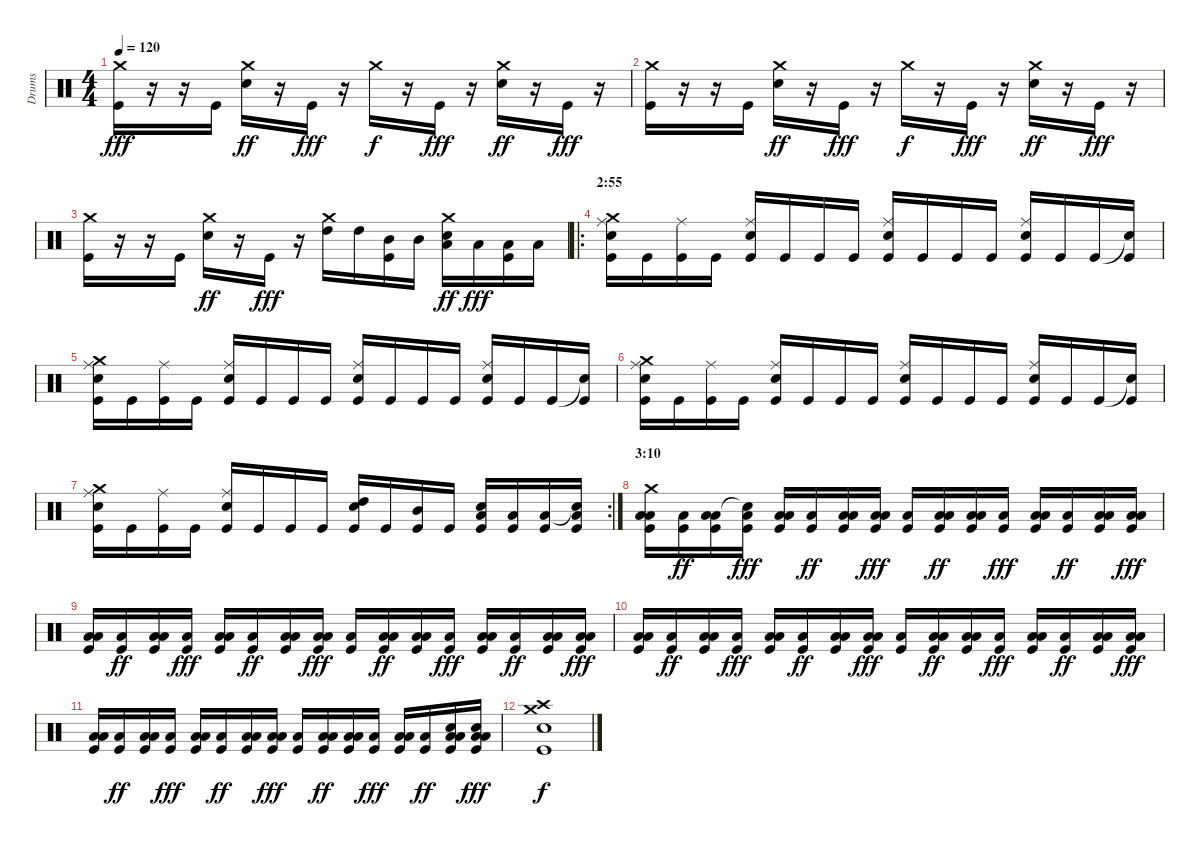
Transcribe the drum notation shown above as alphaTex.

\track ("Drums" "Drums") {instrument percussion}
\staff {score}
\articulation defaults
\ts (4 4)
\tempo 120
\clef neutral
\ks c
("Crash medium (hit)" "Kick (hit)").16{dy fff} r.16 r.16 "Kick (hit)".16 ("Crash medium (hit)" "Electric Snare (hit)").16{dy ff} r.16 "Kick (hit)".16{dy fff} r.16 "Crash medium (hit)".16{dy f} r.16 "Kick (hit)".16{dy fff} r.16 ("Crash medium (hit)" "Electric Snare (hit)").16{dy ff} r.16 "Kick (hit)".16{dy fff} r.16 |
("Crash medium (hit)" "Kick (hit)").16 r.16 r.16 "Kick (hit)".16 ("Crash medium (hit)" "Electric Snare (hit)").16{dy ff} r.16 "Kick (hit)".16{dy fff} r.16 "Crash medium (hit)".16{dy f} r.16 "Kick (hit)".16{dy fff} r.16 ("Crash medium (hit)" "Electric Snare (hit)").16{dy ff} r.16 "Kick (hit)".16{dy fff} r.16 |
("Crash medium (hit)" "Kick (hit)").16 r.16 r.16 "Kick (hit)".16 ("Crash medium (hit)" "Electric Snare (hit)").16{dy ff} r.16 "Kick (hit)".16{dy fff} r.16 ("Crash medium (hit)" "High Tom (hit)").16 "High Tom (hit)".16 ("Mid Tom (hit)" "Kick (hit)").16 "Mid Tom (hit)".16 ("Crash medium (hit)" "Low Tom (hit)" "Electric Snare (hit)").16{dy ff} "Low Tom (hit)".16{dy fff} ("Low Floor Tom (hit)" "Kick (hit)").16 "Low Floor Tom (hit)".16 |
\ro
\section ("" "2:55")
("Ride (middle)" "Crash medium (hit)" "Snare (hit) 2" "Kick (hit)").16 "Kick (hit)".16 ("Ride (middle)" "Kick (hit)").16 "Kick (hit)".16 ("Ride (middle)" "Snare (hit) 2" "Kick (hit)").16 "Kick (hit)".16 "Kick (hit)".16 "Kick (hit)".16 ("Ride (middle)" "Snare (hit) 2" "Kick (hit)").16 "Kick (hit)".16 "Kick (hit)".16 "Kick (hit)".16 ("Ride (middle)" "Snare (hit) 2" "Kick (hit)").16 "Kick (hit)".16 "Kick (hit)".16 ("Snare (hit)"{t} "Kick (hit)").16 |
("Ride (middle)" "Crash medium (hit)" "Snare (hit) 2" "Kick (hit)").16 "Kick (hit)".16 ("Ride (middle)" "Kick (hit)").16 "Kick (hit)".16 ("Ride (middle)" "Snare (hit) 2" "Kick (hit)").16 "Kick (hit)".16 "Kick (hit)".16 "Kick (hit)".16 ("Ride (middle)" "Snare (hit) 2" "Kick (hit)").16 "Kick (hit)".16 "Kick (hit)".16 "Kick (hit)".16 ("Ride (middle)" "Snare (hit) 2" "Kick (hit)").16 "Kick (hit)".16 "Kick (hit)".16 ("Snare (hit)"{t} "Kick (hit)").16 |
("Ride (middle)" "Crash medium (hit)" "Snare (hit) 2" "Kick (hit)").16 "Kick (hit)".16 ("Ride (middle)" "Kick (hit)").16 "Kick (hit)".16 ("Ride (middle)" "Snare (hit) 2" "Kick (hit)").16 "Kick (hit)".16 "Kick (hit)".16 "Kick (hit)".16 ("Ride (middle)" "Snare (hit) 2" "Kick (hit)").16 "Kick (hit)".16 "Kick (hit)".16 "Kick (hit)".16 ("Ride (middle)" "Snare (hit) 2" "Kick (hit)").16 "Kick (hit)".16 "Kick (hit)".16 ("Snare (hit)"{t} "Kick (hit)").16 |
\rc 2
("Ride (middle)" "Crash medium (hit)" "Snare (hit) 2" "Kick (hit)").16 "Kick (hit)".16 ("Ride (middle)" "Kick (hit)").16 "Kick (hit)".16 ("Ride (middle)" "Snare (hit) 2" "Kick (hit)").16 "Kick (hit)".16 "Kick (hit)".16 "Kick (hit)".16 ("High Tom (hit)" "Snare (hit) 2" "Kick (hit)").16 "Kick (hit)".16 ("Mid Tom (hit)" "Kick (hit)").16 "Kick (hit)".16 ("Low Tom (hit)" "Snare (hit) 2" "Kick (hit)").16 ("Low Tom (hit)" "Kick (hit)").16 ("Low Floor Tom (hit)" "Kick (hit)").16 ("Snare (hit)"{t} "Low Floor Tom (hit)" "Kick (hit)").16 |
\section ("" "3:10")
("Crash medium (hit)" "Low Floor Tom (hit)" "Low Tom (hit)" "Kick (hit)").16 ("Low Floor Tom (hit)" "Kick (hit)").16{dy ff} ("Low Floor Tom (hit)" "Low Floor Tom (hit)" "Kick (hit)").16 ("Snare (hit)"{t} "Low Floor Tom (hit)" "Kick (hit)").16{dy fff} ("Low Floor Tom (hit)" "Low Floor Tom (hit)" "Kick (hit)").16 ("Low Floor Tom (hit)" "Kick (hit)").16{dy ff} ("Low Floor Tom (hit)" "Low Floor Tom (hit)" "Kick (hit)").16 ("Low Floor Tom (hit)" "Low Floor Tom (hit)" "Kick (hit)").16{dy fff} ("Low Floor Tom (hit)" "Kick (hit)").16 ("Low Floor Tom (hit)" "Low Floor Tom (hit)" "Kick (hit)").16{dy ff} ("Low Floor Tom (hit)" "Low Floor Tom (hit)" "Kick (hit)").16 ("Low Floor Tom (hit)" "Kick (hit)").16{dy fff} ("Low Floor Tom (hit)" "Low Floor Tom (hit)" "Kick (hit)").16 ("Low Floor Tom (hit)" "Kick (hit)").16{dy ff} ("Low Floor Tom (hit)" "Low Floor Tom (hit)" "Kick (hit)").16 ("Low Floor Tom (hit)" "Low Floor Tom (hit)" "Kick (hit)").16{dy fff} |
("Low Floor Tom (hit)" "Low Tom (hit)" "Kick (hit)").16 ("Low Floor Tom (hit)" "Kick (hit)").16{dy ff} ("Low Floor Tom (hit)" "Low Floor Tom (hit)" "Kick (hit)").16 ("Low Floor Tom (hit)" "Kick (hit)").16{dy fff} ("Low Floor Tom (hit)" "Low Floor Tom (hit)" "Kick (hit)").16 ("Low Floor Tom (hit)" "Kick (hit)").16{dy ff} ("Low Floor Tom (hit)" "Low Floor Tom (hit)" "Kick (hit)").16 ("Low Floor Tom (hit)" "Low Floor Tom (hit)" "Kick (hit)").16{dy fff} ("Low Floor Tom (hit)" "Kick (hit)").16 ("Low Floor Tom (hit)" "Low Floor Tom (hit)" "Kick (hit)").16{dy ff} ("Low Floor Tom (hit)" "Low Floor Tom (hit)" "Kick (hit)").16 ("Low Floor Tom (hit)" "Kick (hit)").16{dy fff} ("Low Floor Tom (hit)" "Low Floor Tom (hit)" "Kick (hit)").16 ("Low Floor Tom (hit)" "Kick (hit)").16{dy ff} ("Low Floor Tom (hit)" "Low Floor Tom (hit)" "Kick (hit)").16 ("Low Floor Tom (hit)" "Low Floor Tom (hit)" "Kick (hit)").16{dy fff} |
("Low Floor Tom (hit)" "Low Tom (hit)" "Kick (hit)").16 ("Low Floor Tom (hit)" "Kick (hit)").16{dy ff} ("Low Floor Tom (hit)" "Low Floor Tom (hit)" "Kick (hit)").16 ("Low Floor Tom (hit)" "Kick (hit)").16{dy fff} ("Low Floor Tom (hit)" "Low Floor Tom (hit)" "Kick (hit)").16 ("Low Floor Tom (hit)" "Kick (hit)").16{dy ff} ("Low Floor Tom (hit)" "Low Floor Tom (hit)" "Kick (hit)").16 ("Low Floor Tom (hit)" "Low Floor Tom (hit)" "Kick (hit)").16{dy fff} ("Low Floor Tom (hit)" "Kick (hit)").16 ("Low Floor Tom (hit)" "Low Floor Tom (hit)" "Kick (hit)").16{dy ff} ("Low Floor Tom (hit)" "Low Floor Tom (hit)" "Kick (hit)").16 ("Low Floor Tom (hit)" "Kick (hit)").16{dy fff} ("Low Floor Tom (hit)" "Low Floor Tom (hit)" "Kick (hit)").16 ("Low Floor Tom (hit)" "Kick (hit)").16{dy ff} ("Low Floor Tom (hit)" "Low Floor Tom (hit)" "Kick (hit)").16 ("Low Floor Tom (hit)" "Low Floor Tom (hit)" "Kick (hit)").16{dy fff} |
("Low Floor Tom (hit)" "Low Tom (hit)" "Kick (hit)").16 ("Low Floor Tom (hit)" "Kick (hit)").16{dy ff} ("Low Floor Tom (hit)" "Low Floor Tom (hit)" "Kick (hit)").16 ("Low Floor Tom (hit)" "Kick (hit)").16{dy fff} ("Low Floor Tom (hit)" "Low Floor Tom (hit)" "Kick (hit)").16 ("Low Floor Tom (hit)" "Kick (hit)").16{dy ff} ("Low Floor Tom (hit)" "Low Floor Tom (hit)" "Kick (hit)").16 ("Low Floor Tom (hit)" "Low Floor Tom (hit)" "Kick (hit)").16{dy fff} ("Low Floor Tom (hit)" "Kick (hit)").16 ("Low Floor Tom (hit)" "Low Floor Tom (hit)" "Kick (hit)").16{dy ff} ("Low Floor Tom (hit)" "Low Floor Tom (hit)" "Kick (hit)").16 ("Low Floor Tom (hit)" "Kick (hit)").16{dy fff} ("Low Floor Tom (hit)" "Low Floor Tom (hit)" "Kick (hit)").16 ("Low Floor Tom (hit)" "Kick (hit)").16{dy ff} ("Electric Snare (hit)" "Low Floor Tom (hit)" "Low Floor Tom (hit)" "Kick (hit)").16 ("Electric Snare (hit)" "Low Floor Tom (hit)" "Low Floor Tom (hit)" "Kick (hit)").16{dy fff} |
("Crash high (hit)" "Crash medium (hit)" "Electric Snare (hit)" "Kick (hit)").1{dy f}
